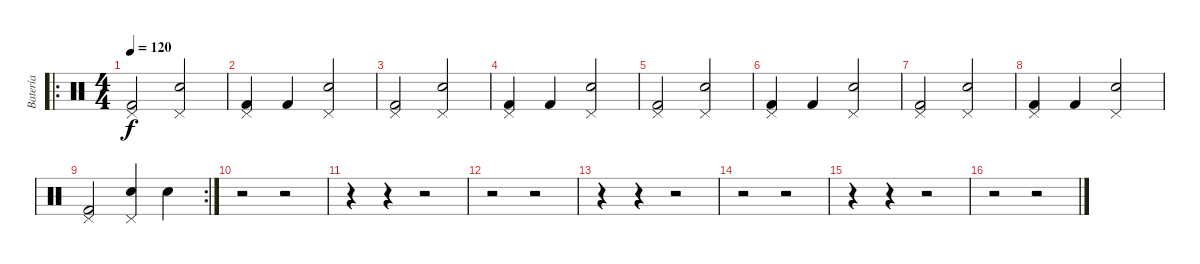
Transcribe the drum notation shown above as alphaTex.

\track ("Batería" "Batería") {instrument percussion}
\staff {score}
\articulation defaults
\ro
\ts (4 4)
\tempo 120
\clef neutral
\ks c
("Pedal Hi-Hat (hit)" "Kick (hit) 2").2{dy f} ("Pedal Hi-Hat (hit)" "Electric Snare (hit)").2 |
("Pedal Hi-Hat (hit)" "Kick (hit) 2").4 "Kick (hit) 2".4 ("Pedal Hi-Hat (hit)" "Electric Snare (hit)").2 |
("Pedal Hi-Hat (hit)" "Kick (hit) 2").2 ("Pedal Hi-Hat (hit)" "Electric Snare (hit)").2 |
("Pedal Hi-Hat (hit)" "Kick (hit) 2").4 "Kick (hit) 2".4 ("Pedal Hi-Hat (hit)" "Electric Snare (hit)").2 |
("Pedal Hi-Hat (hit)" "Kick (hit) 2").2 ("Pedal Hi-Hat (hit)" "Electric Snare (hit)").2 |
("Pedal Hi-Hat (hit)" "Kick (hit) 2").4 "Kick (hit) 2".4 ("Pedal Hi-Hat (hit)" "Electric Snare (hit)").2 |
("Pedal Hi-Hat (hit)" "Kick (hit) 2").2 ("Pedal Hi-Hat (hit)" "Electric Snare (hit)").2 |
("Pedal Hi-Hat (hit)" "Kick (hit) 2").4 "Kick (hit) 2".4 ("Pedal Hi-Hat (hit)" "Electric Snare (hit)").2 |
\rc 2
("Pedal Hi-Hat (hit)" "Kick (hit) 2").2 ("Pedal Hi-Hat (hit)" "Electric Snare (hit)").4 "Electric Snare (hit)".4 |
r.2 r.2 |
r.4 r.4 r.2 |
r.2 r.2 |
r.4 r.4 r.2 |
r.2 r.2 |
r.4 r.4 r.2 |
r.2 r.2
